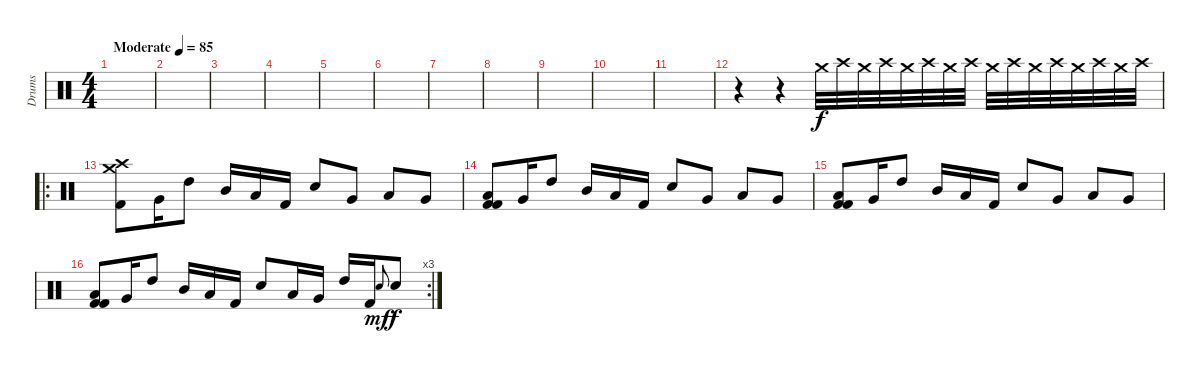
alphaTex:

\track ("Drums" "Drums") {instrument percussion}
\staff {score}
\articulation defaults
\ts (4 4)
\tempo (85 "Moderate")
\clef neutral
\ks c
|
|
|
|
|
|
|
|
|
|
|
r.4 r.4 "Crash medium (hit)".32{volume 13} "Crash high (hit)".32 "Crash medium (hit)".32 "Crash high (hit)".32 "Crash medium (hit)".32 "Crash high (hit)".32 "Crash medium (hit)".32 "Crash high (hit)".32 "Crash medium (hit)".32 "Crash high (hit)".32 "Crash medium (hit)".32 "Crash high (hit)".32 "Crash medium (hit)".32 "Crash high (hit)".32 "Crash medium (hit)".32 "Crash high (hit)".32 |
\ro
("Crash medium (hit)" "Crash high (hit)" "Kick (hit) 2").8{volume 13} "Very Low Tom (hit)".16 "High Tom (hit)".8 "Mid Tom (hit)".16 "Low Tom (hit)".16 "Kick (hit) 2".16 "Electric Snare (hit)".8 "Very Low Tom (hit)".8 "Low Tom (hit)".8 "Very Low Tom (hit)".8 |
("Low Floor Tom (hit)" "Kick (hit) 2" "Kick (hit) 2").8 "Very Low Tom (hit)".16 "High Tom (hit)".8 "Mid Tom (hit)".16 "Low Tom (hit)".16 "Kick (hit) 2".16 "Electric Snare (hit)".8 "Very Low Tom (hit)".8 "Low Tom (hit)".8 "Very Low Tom (hit)".8 |
("Low Floor Tom (hit)" "Kick (hit) 2" "Kick (hit) 2").8 "Very Low Tom (hit)".16 "High Tom (hit)".8 "Mid Tom (hit)".16 "Low Tom (hit)".16 "Kick (hit) 2".16 "Electric Snare (hit)".8 "Very Low Tom (hit)".8 "Low Tom (hit)".8 "Very Low Tom (hit)".8 |
\rc 3
("Low Floor Tom (hit)" "Kick (hit) 2" "Kick (hit) 2").8 "Very Low Tom (hit)".16 "High Tom (hit)".8 "Mid Tom (hit)".16 "Low Tom (hit)".16 "Kick (hit) 2".16 "Electric Snare (hit)".8 "Low Tom (hit)".16 "Very Low Tom (hit)".16 "High Tom (hit)".16 "Kick (hit) 2".16 "Electric Snare (hit)".8{gr onbeat dy mf} "Electric Snare (hit)".8{dy f}
